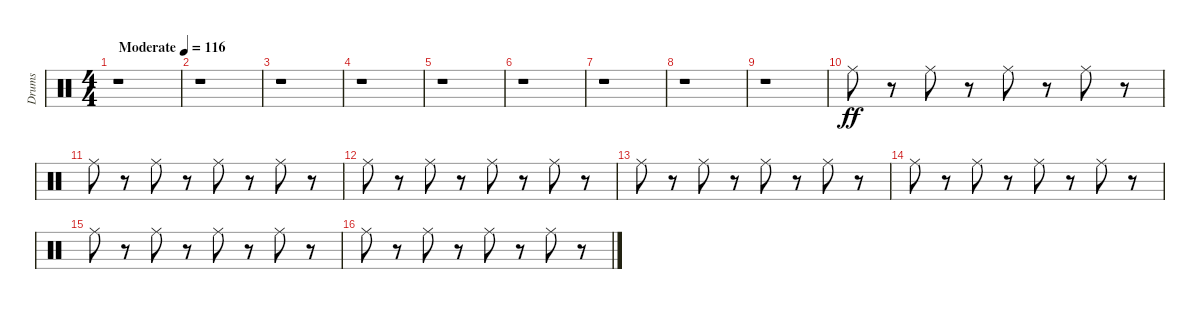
\track ("Drums" "Drums") {instrument percussion}
\staff {score}
\articulation defaults
\ts (4 4)
\tempo (116 "Moderate")
\clef neutral
\ks c
r.1{dy ff} |
r.1 |
r.1 |
r.1 |
r.1 |
r.1 |
r.1 |
r.1 |
r.1 |
"Ride (middle)".8 r.8 "Ride (middle)".8 r.8 "Ride (middle)".8 r.8 "Ride (middle)".8 r.8 |
"Ride (middle)".8 r.8 "Ride (middle)".8 r.8 "Ride (middle)".8 r.8 "Ride (middle)".8 r.8 |
"Ride (middle)".8 r.8 "Ride (middle)".8 r.8 "Ride (middle)".8 r.8 "Ride (middle)".8 r.8 |
"Ride (middle)".8 r.8 "Ride (middle)".8 r.8 "Ride (middle)".8 r.8 "Ride (middle)".8 r.8 |
"Ride (middle)".8 r.8 "Ride (middle)".8 r.8 "Ride (middle)".8 r.8 "Ride (middle)".8 r.8 |
"Ride (middle)".8 r.8 "Ride (middle)".8 r.8 "Ride (middle)".8 r.8 "Ride (middle)".8 r.8 |
"Ride (middle)".8 r.8 "Ride (middle)".8 r.8 "Ride (middle)".8 r.8 "Ride (middle)".8 r.8
